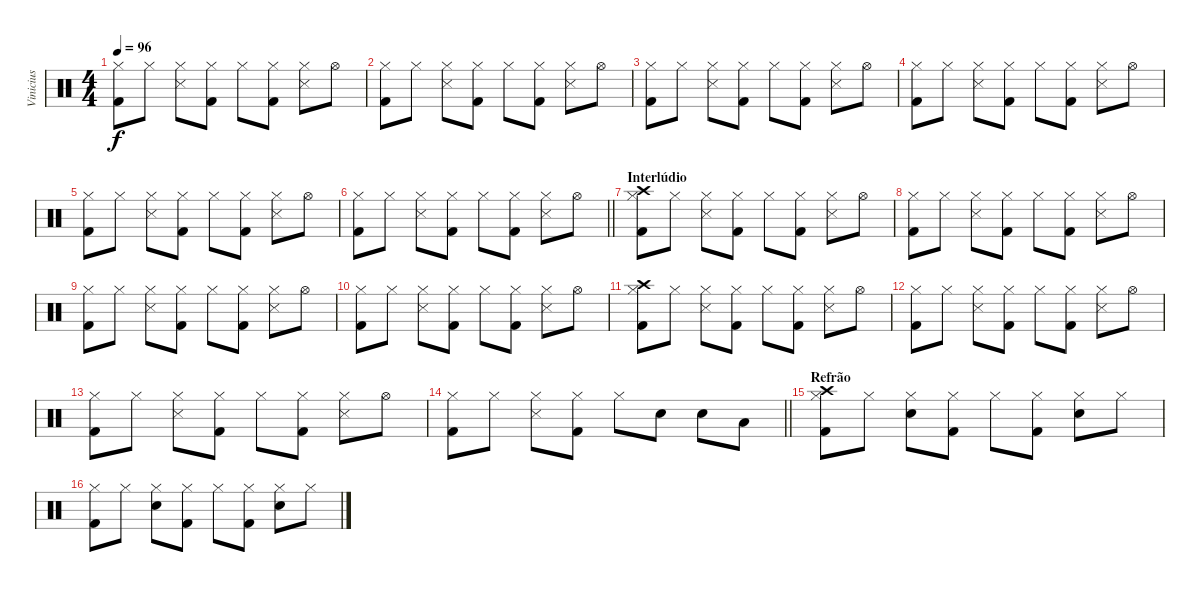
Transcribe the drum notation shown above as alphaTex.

\track ("Vinicius" "Vinicius") {instrument percussion}
\staff {score}
\articulation defaults
\ts (4 4)
\tempo 96
\clef neutral
\ks c
("Kick (hit) 2" "Hi-Hat (closed)").8{dy f} "Hi-Hat (closed)".8 ("Snare (side stick) 3" "Hi-Hat (closed)").8 ("Kick (hit) 2" "Hi-Hat (closed)").8 "Hi-Hat (closed)".8 ("Kick (hit) 2" "Hi-Hat (closed)").8 ("Snare (side stick) 3" "Hi-Hat (closed)").8 "Hi-Hat (open)".8 |
("Kick (hit) 2" "Hi-Hat (closed)").8 "Hi-Hat (closed)".8 ("Snare (side stick) 3" "Hi-Hat (closed)").8 ("Kick (hit) 2" "Hi-Hat (closed)").8 "Hi-Hat (closed)".8 ("Kick (hit) 2" "Hi-Hat (closed)").8 ("Snare (side stick) 3" "Hi-Hat (closed)").8 "Hi-Hat (open)".8 |
("Kick (hit) 2" "Hi-Hat (closed)").8 "Hi-Hat (closed)".8 ("Snare (side stick) 3" "Hi-Hat (closed)").8 ("Kick (hit) 2" "Hi-Hat (closed)").8 "Hi-Hat (closed)".8 ("Kick (hit) 2" "Hi-Hat (closed)").8 ("Snare (side stick) 3" "Hi-Hat (closed)").8 "Hi-Hat (open)".8 |
("Kick (hit) 2" "Hi-Hat (closed)").8 "Hi-Hat (closed)".8 ("Snare (side stick) 3" "Hi-Hat (closed)").8 ("Kick (hit) 2" "Hi-Hat (closed)").8 "Hi-Hat (closed)".8 ("Kick (hit) 2" "Hi-Hat (closed)").8 ("Snare (side stick) 3" "Hi-Hat (closed)").8 "Hi-Hat (open)".8 |
("Kick (hit) 2" "Hi-Hat (closed)").8 "Hi-Hat (closed)".8 ("Snare (side stick) 3" "Hi-Hat (closed)").8 ("Kick (hit) 2" "Hi-Hat (closed)").8 "Hi-Hat (closed)".8 ("Kick (hit) 2" "Hi-Hat (closed)").8 ("Snare (side stick) 3" "Hi-Hat (closed)").8 "Hi-Hat (open)".8 |
\barLineRight lightlight
("Kick (hit) 2" "Hi-Hat (closed)").8 "Hi-Hat (closed)".8 ("Snare (side stick) 3" "Hi-Hat (closed)").8 ("Kick (hit) 2" "Hi-Hat (closed)").8 "Hi-Hat (closed)".8 ("Kick (hit) 2" "Hi-Hat (closed)").8 ("Snare (side stick) 3" "Hi-Hat (closed)").8 "Hi-Hat (open)".8 |
\section ("" "Interlúdio")
("Kick (hit) 2" "Crash high (hit)" "Hi-Hat (closed)").8 "Hi-Hat (closed)".8 ("Snare (side stick) 3" "Hi-Hat (closed)").8 ("Kick (hit) 2" "Hi-Hat (closed)").8 "Hi-Hat (closed)".8 ("Kick (hit) 2" "Hi-Hat (closed)").8 ("Snare (side stick) 3" "Hi-Hat (closed)").8 "Hi-Hat (open)".8 |
("Kick (hit) 2" "Hi-Hat (closed)").8 "Hi-Hat (closed)".8 ("Snare (side stick) 3" "Hi-Hat (closed)").8 ("Kick (hit) 2" "Hi-Hat (closed)").8 "Hi-Hat (closed)".8 ("Kick (hit) 2" "Hi-Hat (closed)").8 ("Snare (side stick) 3" "Hi-Hat (closed)").8 "Hi-Hat (open)".8 |
("Kick (hit) 2" "Hi-Hat (closed)").8 "Hi-Hat (closed)".8 ("Snare (side stick) 3" "Hi-Hat (closed)").8 ("Kick (hit) 2" "Hi-Hat (closed)").8 "Hi-Hat (closed)".8 ("Kick (hit) 2" "Hi-Hat (closed)").8 ("Snare (side stick) 3" "Hi-Hat (closed)").8 "Hi-Hat (open)".8 |
("Kick (hit) 2" "Hi-Hat (closed)").8 "Hi-Hat (closed)".8 ("Snare (side stick) 3" "Hi-Hat (closed)").8 ("Kick (hit) 2" "Hi-Hat (closed)").8 "Hi-Hat (closed)".8 ("Kick (hit) 2" "Hi-Hat (closed)").8 ("Snare (side stick) 3" "Hi-Hat (closed)").8 "Hi-Hat (open)".8 |
("Kick (hit) 2" "Crash high (hit)" "Hi-Hat (closed)").8 "Hi-Hat (closed)".8 ("Snare (side stick) 3" "Hi-Hat (closed)").8 ("Kick (hit) 2" "Hi-Hat (closed)").8 "Hi-Hat (closed)".8 ("Kick (hit) 2" "Hi-Hat (closed)").8 ("Snare (side stick) 3" "Hi-Hat (closed)").8 "Hi-Hat (open)".8 |
("Kick (hit) 2" "Hi-Hat (closed)").8 "Hi-Hat (closed)".8 ("Snare (side stick) 3" "Hi-Hat (closed)").8 ("Kick (hit) 2" "Hi-Hat (closed)").8 "Hi-Hat (closed)".8 ("Kick (hit) 2" "Hi-Hat (closed)").8 ("Snare (side stick) 3" "Hi-Hat (closed)").8 "Hi-Hat (open)".8 |
("Kick (hit) 2" "Hi-Hat (closed)").8 "Hi-Hat (closed)".8 ("Snare (side stick) 3" "Hi-Hat (closed)").8 ("Kick (hit) 2" "Hi-Hat (closed)").8 "Hi-Hat (closed)".8 ("Kick (hit) 2" "Hi-Hat (closed)").8 ("Snare (side stick) 3" "Hi-Hat (closed)").8 "Hi-Hat (open)".8 |
\barLineRight lightlight
("Kick (hit) 2" "Hi-Hat (closed)").8 "Hi-Hat (closed)".8 ("Snare (side stick) 3" "Hi-Hat (closed)").8 ("Kick (hit) 2" "Hi-Hat (closed)").8 "Hi-Hat (closed)".8 "Snare (hit) 2".8 "Snare (hit) 2".8 "Low Tom (hit)".8 |
\section ("" "Refrão")
("Kick (hit) 2" "Crash high (hit)" "Hi-Hat (closed)").8 "Hi-Hat (closed)".8 ("Snare (hit) 2" "Hi-Hat (closed)").8 ("Kick (hit) 2" "Hi-Hat (closed)").8 "Hi-Hat (closed)".8 ("Kick (hit) 2" "Hi-Hat (closed)").8 ("Snare (hit) 2" "Hi-Hat (closed)").8 "Hi-Hat (closed)".8 |
("Kick (hit) 2" "Hi-Hat (closed)").8 "Hi-Hat (closed)".8 ("Snare (hit) 2" "Hi-Hat (closed)").8 ("Kick (hit) 2" "Hi-Hat (closed)").8 "Hi-Hat (closed)".8 ("Kick (hit) 2" "Hi-Hat (closed)").8 ("Snare (hit) 2" "Hi-Hat (closed)").8 "Hi-Hat (closed)".8
